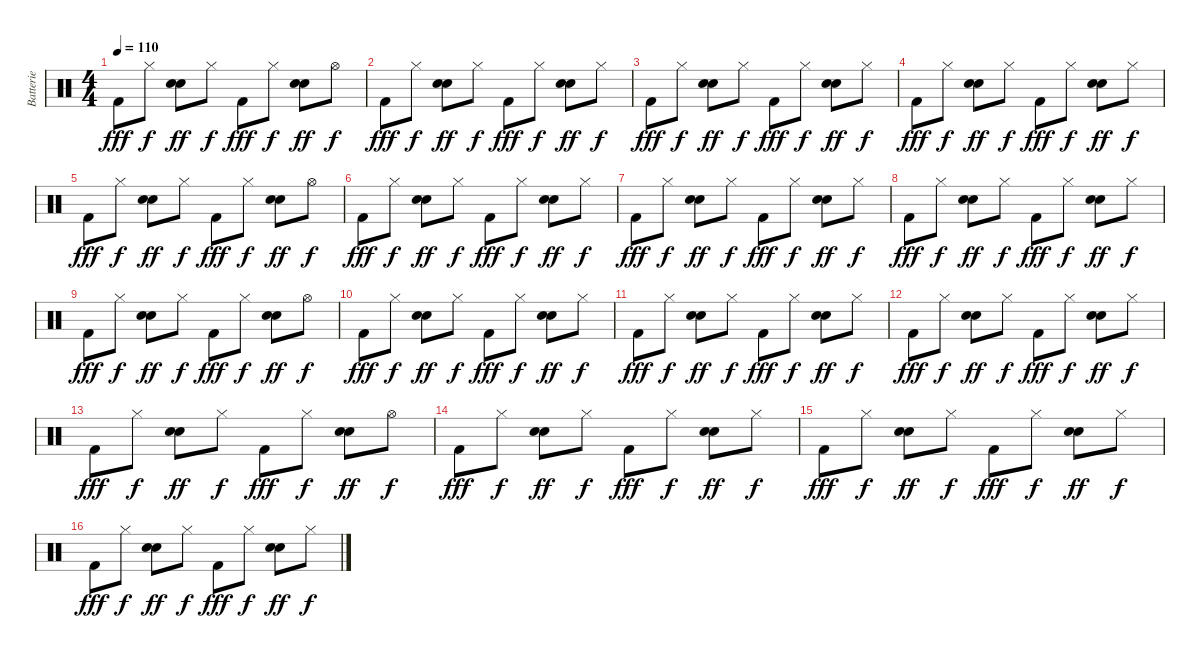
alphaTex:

\track ("Batterie" "Batterie") {instrument percussion}
\staff {score}
\articulation defaults
\ts (4 4)
\tempo 110
\clef neutral
\ks c "Kick (hit) 2".8{dy fff} "Hi-Hat (closed)".8{dy f}
("Snare (hit) 2" "Hand Clap (hit)").8{dy ff} "Hi-Hat (closed)".8{dy f} "Kick (hit) 2".8{dy fff} "Hi-Hat (closed)".8{dy f} ("Snare (hit) 2" "Hand Clap (hit)").8{dy ff} "Hi-Hat (open)".8{dy f} |
"Kick (hit) 2".8{dy fff} "Hi-Hat (closed)".8{dy f} ("Snare (hit) 2" "Hand Clap (hit)").8{dy ff} "Hi-Hat (closed)".8{dy f} "Kick (hit) 2".8{dy fff} "Hi-Hat (closed)".8{dy f} ("Snare (hit) 2" "Hand Clap (hit)").8{dy ff} "Hi-Hat (closed)".8{dy f} |
"Kick (hit) 2".8{dy fff} "Hi-Hat (closed)".8{dy f} ("Snare (hit) 2" "Hand Clap (hit)").8{dy ff} "Hi-Hat (closed)".8{dy f} "Kick (hit) 2".8{dy fff} "Hi-Hat (closed)".8{dy f} ("Snare (hit) 2" "Hand Clap (hit)").8{dy ff} "Hi-Hat (closed)".8{dy f} |
"Kick (hit) 2".8{dy fff} "Hi-Hat (closed)".8{dy f} ("Snare (hit) 2" "Hand Clap (hit)").8{dy ff} "Hi-Hat (closed)".8{dy f} "Kick (hit) 2".8{dy fff} "Hi-Hat (closed)".8{dy f} ("Snare (hit) 2" "Hand Clap (hit)").8{dy ff} "Hi-Hat (closed)".8{dy f} |
"Kick (hit) 2".8{dy fff} "Hi-Hat (closed)".8{dy f} ("Snare (hit) 2" "Hand Clap (hit)").8{dy ff} "Hi-Hat (closed)".8{dy f} "Kick (hit) 2".8{dy fff} "Hi-Hat (closed)".8{dy f} ("Snare (hit) 2" "Hand Clap (hit)").8{dy ff} "Hi-Hat (open)".8{dy f} |
"Kick (hit) 2".8{dy fff} "Hi-Hat (closed)".8{dy f} ("Snare (hit) 2" "Hand Clap (hit)").8{dy ff} "Hi-Hat (closed)".8{dy f} "Kick (hit) 2".8{dy fff} "Hi-Hat (closed)".8{dy f} ("Snare (hit) 2" "Hand Clap (hit)").8{dy ff} "Hi-Hat (closed)".8{dy f} |
"Kick (hit) 2".8{dy fff} "Hi-Hat (closed)".8{dy f} ("Snare (hit) 2" "Hand Clap (hit)").8{dy ff} "Hi-Hat (closed)".8{dy f} "Kick (hit) 2".8{dy fff} "Hi-Hat (closed)".8{dy f} ("Snare (hit) 2" "Hand Clap (hit)").8{dy ff} "Hi-Hat (closed)".8{dy f} |
"Kick (hit) 2".8{dy fff} "Hi-Hat (closed)".8{dy f} ("Snare (hit) 2" "Hand Clap (hit)").8{dy ff} "Hi-Hat (closed)".8{dy f} "Kick (hit) 2".8{dy fff} "Hi-Hat (closed)".8{dy f} ("Snare (hit) 2" "Hand Clap (hit)").8{dy ff} "Hi-Hat (closed)".8{dy f} |
"Kick (hit) 2".8{dy fff} "Hi-Hat (closed)".8{dy f} ("Snare (hit) 2" "Hand Clap (hit)").8{dy ff} "Hi-Hat (closed)".8{dy f} "Kick (hit) 2".8{dy fff} "Hi-Hat (closed)".8{dy f} ("Snare (hit) 2" "Hand Clap (hit)").8{dy ff} "Hi-Hat (open)".8{dy f} |
"Kick (hit) 2".8{dy fff} "Hi-Hat (closed)".8{dy f} ("Snare (hit) 2" "Hand Clap (hit)").8{dy ff} "Hi-Hat (closed)".8{dy f} "Kick (hit) 2".8{dy fff} "Hi-Hat (closed)".8{dy f} ("Snare (hit) 2" "Hand Clap (hit)").8{dy ff} "Hi-Hat (closed)".8{dy f} |
"Kick (hit) 2".8{dy fff} "Hi-Hat (closed)".8{dy f} ("Snare (hit) 2" "Hand Clap (hit)").8{dy ff} "Hi-Hat (closed)".8{dy f} "Kick (hit) 2".8{dy fff} "Hi-Hat (closed)".8{dy f} ("Snare (hit) 2" "Hand Clap (hit)").8{dy ff} "Hi-Hat (closed)".8{dy f} |
"Kick (hit) 2".8{dy fff} "Hi-Hat (closed)".8{dy f} ("Snare (hit) 2" "Hand Clap (hit)").8{dy ff} "Hi-Hat (closed)".8{dy f} "Kick (hit) 2".8{dy fff} "Hi-Hat (closed)".8{dy f} ("Snare (hit) 2" "Hand Clap (hit)").8{dy ff} "Hi-Hat (closed)".8{dy f} |
"Kick (hit) 2".8{dy fff} "Hi-Hat (closed)".8{dy f} ("Snare (hit) 2" "Hand Clap (hit)").8{dy ff} "Hi-Hat (closed)".8{dy f} "Kick (hit) 2".8{dy fff} "Hi-Hat (closed)".8{dy f} ("Snare (hit) 2" "Hand Clap (hit)").8{dy ff} "Hi-Hat (open)".8{dy f} |
"Kick (hit) 2".8{dy fff} "Hi-Hat (closed)".8{dy f} ("Snare (hit) 2" "Hand Clap (hit)").8{dy ff} "Hi-Hat (closed)".8{dy f} "Kick (hit) 2".8{dy fff} "Hi-Hat (closed)".8{dy f} ("Snare (hit) 2" "Hand Clap (hit)").8{dy ff} "Hi-Hat (closed)".8{dy f} |
"Kick (hit) 2".8{dy fff} "Hi-Hat (closed)".8{dy f} ("Snare (hit) 2" "Hand Clap (hit)").8{dy ff} "Hi-Hat (closed)".8{dy f} "Kick (hit) 2".8{dy fff} "Hi-Hat (closed)".8{dy f} ("Snare (hit) 2" "Hand Clap (hit)").8{dy ff} "Hi-Hat (closed)".8{dy f} |
"Kick (hit) 2".8{dy fff} "Hi-Hat (closed)".8{dy f} ("Snare (hit) 2" "Hand Clap (hit)").8{dy ff} "Hi-Hat (closed)".8{dy f} "Kick (hit) 2".8{dy fff} "Hi-Hat (closed)".8{dy f} ("Snare (hit) 2" "Hand Clap (hit)").8{dy ff} "Hi-Hat (closed)".8{dy f}
